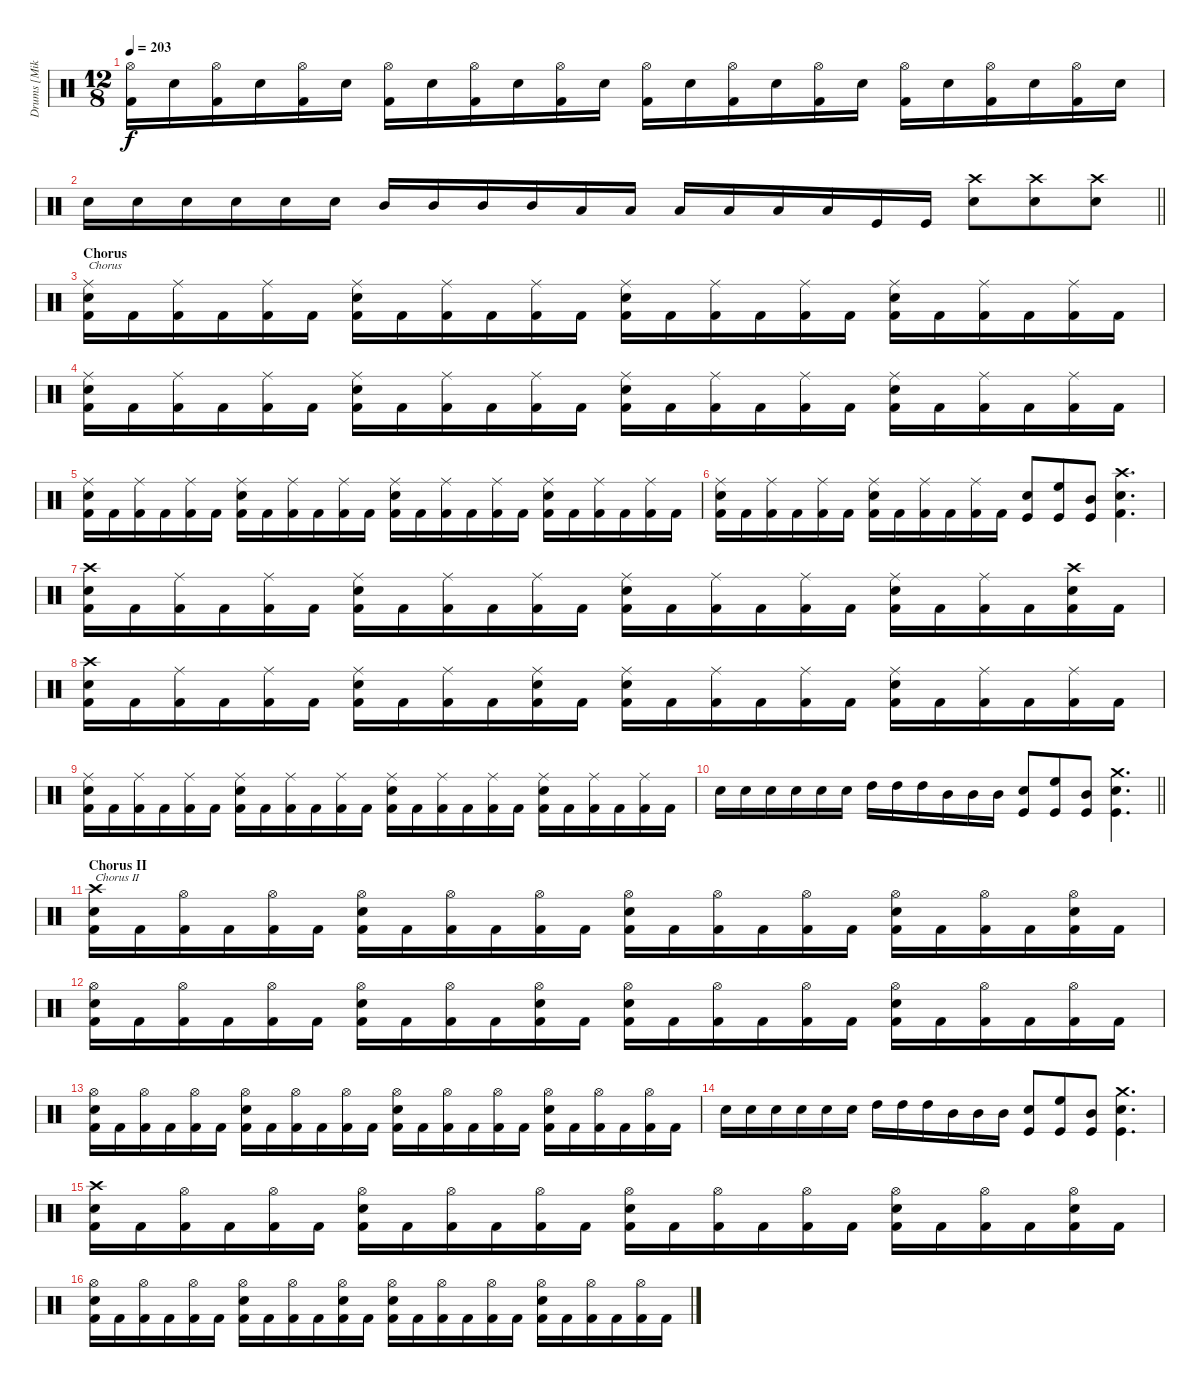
\track ("Drums [Mike Smith]" "Drums [Mik") {instrument percussion}
\staff {score}
\articulation defaults
\ts (12 8)
\tempo 203
\clef neutral
\ks c
("Hi-Hat (open)" "Kick (hit) 2").16{dy f} "Electric Snare (hit)".16 ("Hi-Hat (open)" "Kick (hit) 2").16 "Electric Snare (hit)".16 ("Hi-Hat (open)" "Kick (hit) 2").16 "Electric Snare (hit)".16 ("Hi-Hat (open)" "Kick (hit) 2").16 "Electric Snare (hit)".16 ("Hi-Hat (open)" "Kick (hit) 2").16 "Electric Snare (hit)".16 ("Hi-Hat (open)" "Kick (hit) 2").16 "Electric Snare (hit)".16 ("Hi-Hat (open)" "Kick (hit) 2").16 "Electric Snare (hit)".16 ("Hi-Hat (open)" "Kick (hit) 2").16 "Electric Snare (hit)".16 ("Hi-Hat (open)" "Kick (hit) 2").16 "Electric Snare (hit)".16 ("Hi-Hat (open)" "Kick (hit) 2").16 "Electric Snare (hit)".16 ("Hi-Hat (open)" "Kick (hit) 2").16 "Electric Snare (hit)".16 ("Hi-Hat (open)" "Kick (hit) 2").16 "Electric Snare (hit)".16 |
\barLineRight lightlight "Electric Snare (hit)".16 "Electric Snare (hit)".16 "Electric Snare (hit)".16 "Electric Snare (hit)".16 "Electric Snare (hit)".16 "Electric Snare (hit)".16 "Mid Tom (hit)".16 "Mid Tom (hit)".16 "Mid Tom (hit)".16 "Mid Tom (hit)".16 "Low Tom (hit)".16 "Low Tom (hit)".16 "Low Tom (hit)".16 "Low Tom (hit)".16 "Low Tom (hit)".16 "Low Tom (hit)".16 "Kick (hit)".16 "Kick (hit)".16
("Crash high (hit)" "Electric Snare (hit)").8 ("Crash high (hit)" "Electric Snare (hit)").8 ("Crash high (hit)" "Electric Snare (hit)").8 |
\section ("" "Chorus")
("Ride (middle)" "Electric Snare (hit)" "Kick (hit) 2").16{txt "Chorus"} "Kick (hit) 2".16 ("Ride (middle)" "Kick (hit) 2").16 "Kick (hit) 2".16 ("Ride (middle)" "Kick (hit) 2").16 "Kick (hit) 2".16 ("Ride (middle)" "Electric Snare (hit)" "Kick (hit) 2").16 "Kick (hit) 2".16 ("Ride (middle)" "Kick (hit) 2").16 "Kick (hit) 2".16 ("Ride (middle)" "Kick (hit) 2").16 "Kick (hit) 2".16 ("Ride (middle)" "Electric Snare (hit)" "Kick (hit) 2").16 "Kick (hit) 2".16 ("Ride (middle)" "Kick (hit) 2").16 "Kick (hit) 2".16 ("Ride (middle)" "Kick (hit) 2").16 "Kick (hit) 2".16 ("Ride (middle)" "Electric Snare (hit)" "Kick (hit) 2").16 "Kick (hit) 2".16 ("Ride (middle)" "Kick (hit) 2").16 "Kick (hit) 2".16 ("Ride (middle)" "Kick (hit) 2").16 "Kick (hit) 2".16 |
("Ride (middle)" "Electric Snare (hit)" "Kick (hit) 2").16 "Kick (hit) 2".16 ("Ride (middle)" "Kick (hit) 2").16 "Kick (hit) 2".16 ("Ride (middle)" "Kick (hit) 2").16 "Kick (hit) 2".16 ("Ride (middle)" "Electric Snare (hit)" "Kick (hit) 2").16 "Kick (hit) 2".16 ("Ride (middle)" "Kick (hit) 2").16 "Kick (hit) 2".16 ("Ride (middle)" "Kick (hit) 2").16 "Kick (hit) 2".16 ("Ride (middle)" "Electric Snare (hit)" "Kick (hit) 2").16 "Kick (hit) 2".16 ("Ride (middle)" "Kick (hit) 2").16 "Kick (hit) 2".16 ("Ride (middle)" "Kick (hit) 2").16 "Kick (hit) 2".16 ("Ride (middle)" "Electric Snare (hit)" "Kick (hit) 2").16 "Kick (hit) 2".16 ("Ride (middle)" "Kick (hit) 2").16 "Kick (hit) 2".16 ("Ride (middle)" "Kick (hit) 2").16 "Kick (hit) 2".16 |
("Ride (middle)" "Electric Snare (hit)" "Kick (hit) 2").16 "Kick (hit) 2".16 ("Ride (middle)" "Kick (hit) 2").16 "Kick (hit) 2".16 ("Ride (middle)" "Kick (hit) 2").16 "Kick (hit) 2".16 ("Ride (middle)" "Electric Snare (hit)" "Kick (hit) 2").16 "Kick (hit) 2".16 ("Ride (middle)" "Kick (hit) 2").16 "Kick (hit) 2".16 ("Ride (middle)" "Kick (hit) 2").16 "Kick (hit) 2".16 ("Ride (middle)" "Electric Snare (hit)" "Kick (hit) 2").16 "Kick (hit) 2".16 ("Ride (middle)" "Kick (hit) 2").16 "Kick (hit) 2".16 ("Ride (middle)" "Kick (hit) 2").16 "Kick (hit) 2".16 ("Ride (middle)" "Electric Snare (hit)" "Kick (hit) 2").16 "Kick (hit) 2".16 ("Ride (middle)" "Kick (hit) 2").16 "Kick (hit) 2".16 ("Ride (middle)" "Kick (hit) 2").16 "Kick (hit) 2".16 |
("Ride (middle)" "Electric Snare (hit)" "Kick (hit) 2").16 "Kick (hit) 2".16 ("Ride (middle)" "Kick (hit) 2").16 "Kick (hit) 2".16 ("Ride (middle)" "Kick (hit) 2").16 "Kick (hit) 2".16 ("Ride (middle)" "Electric Snare (hit)" "Kick (hit) 2").16 "Kick (hit) 2".16 ("Ride (middle)" "Kick (hit) 2").16 "Kick (hit) 2".16 ("Ride (middle)" "Kick (hit) 2").16 "Kick (hit) 2".16 ("Electric Snare (hit)" "Kick (hit)").8 ("High Floor Tom (hit)" "Kick (hit)").8 ("Mid Tom (hit)" "Kick (hit)").8 ("Crash high (hit)" "Electric Snare (hit)" "Kick (hit) 2").4{d} |
("Crash high (hit)" "Electric Snare (hit)" "Kick (hit) 2").16 "Kick (hit) 2".16 ("Ride (middle)" "Kick (hit) 2").16 "Kick (hit) 2".16 ("Ride (middle)" "Kick (hit) 2").16 "Kick (hit) 2".16 ("Ride (middle)" "Electric Snare (hit)" "Kick (hit) 2").16 "Kick (hit) 2".16 ("Ride (middle)" "Kick (hit) 2").16 "Kick (hit) 2".16 ("Ride (middle)" "Kick (hit) 2").16 "Kick (hit) 2".16 ("Ride (middle)" "Electric Snare (hit)" "Kick (hit) 2").16 "Kick (hit) 2".16 ("Ride (middle)" "Kick (hit) 2").16 "Kick (hit) 2".16 ("Ride (middle)" "Kick (hit) 2").16 "Kick (hit) 2".16 ("Ride (middle)" "Electric Snare (hit)" "Kick (hit) 2").16 "Kick (hit) 2".16 ("Ride (middle)" "Kick (hit) 2").16 "Kick (hit) 2".16 ("Crash high (hit)" "Electric Snare (hit)" "Kick (hit) 2").16 "Kick (hit) 2".16 |
("Crash high (hit)" "Electric Snare (hit)" "Kick (hit) 2").16 "Kick (hit) 2".16 ("Ride (middle)" "Kick (hit) 2").16 "Kick (hit) 2".16 ("Ride (middle)" "Kick (hit) 2").16 "Kick (hit) 2".16 ("Ride (middle)" "Electric Snare (hit)" "Kick (hit) 2").16 "Kick (hit) 2".16 ("Ride (middle)" "Kick (hit) 2").16 "Kick (hit) 2".16 ("Ride (middle)" "Electric Snare (hit)" "Kick (hit) 2").16 "Kick (hit) 2".16 ("Ride (middle)" "Electric Snare (hit)" "Kick (hit) 2").16 "Kick (hit) 2".16 ("Ride (middle)" "Kick (hit) 2").16 "Kick (hit) 2".16 ("Ride (middle)" "Kick (hit) 2").16 "Kick (hit) 2".16 ("Ride (middle)" "Electric Snare (hit)" "Kick (hit) 2").16 "Kick (hit) 2".16 ("Ride (middle)" "Kick (hit) 2").16 "Kick (hit) 2".16 ("Ride (middle)" "Kick (hit) 2").16 "Kick (hit) 2".16 |
("Ride (middle)" "Electric Snare (hit)" "Kick (hit) 2").16 "Kick (hit) 2".16 ("Ride (middle)" "Kick (hit) 2").16 "Kick (hit) 2".16 ("Ride (middle)" "Kick (hit) 2").16 "Kick (hit) 2".16 ("Ride (middle)" "Electric Snare (hit)" "Kick (hit) 2").16 "Kick (hit) 2".16 ("Ride (middle)" "Kick (hit) 2").16 "Kick (hit) 2".16 ("Ride (middle)" "Kick (hit) 2").16 "Kick (hit) 2".16 ("Ride (middle)" "Electric Snare (hit)" "Kick (hit) 2").16 "Kick (hit) 2".16 ("Ride (middle)" "Kick (hit) 2").16 "Kick (hit) 2".16 ("Ride (middle)" "Kick (hit) 2").16 "Kick (hit) 2".16 ("Ride (middle)" "Electric Snare (hit)" "Kick (hit) 2").16 "Kick (hit) 2".16 ("Ride (middle)" "Kick (hit) 2").16 "Kick (hit) 2".16 ("Ride (middle)" "Kick (hit) 2").16 "Kick (hit) 2".16 |
\barLineRight lightlight "Electric Snare (hit)".16 "Electric Snare (hit)".16 "Electric Snare (hit)".16 "Electric Snare (hit)".16 "Electric Snare (hit)".16 "Electric Snare (hit)".16 "High Tom (hit)".16 "High Tom (hit)".16 "High Tom (hit)".16 "Mid Tom (hit)".16 "Mid Tom (hit)".16 "Mid Tom (hit)".16
("Electric Snare (hit)" "Kick (hit)").8 ("High Floor Tom (hit)" "Kick (hit)").8 ("Mid Tom (hit)" "Kick (hit)").8 ("Crash medium (hit)" "Electric Snare (hit)" "Kick (hit)").4{d} |
\section ("" "Chorus II")
("Crash high (hit)" "Electric Snare (hit)" "Kick (hit) 2").16{txt "Chorus II"} "Kick (hit) 2".16 ("Hi-Hat (open)" "Kick (hit) 2").16 "Kick (hit) 2".16 ("Hi-Hat (open)" "Kick (hit) 2").16 "Kick (hit) 2".16 ("Hi-Hat (open)" "Electric Snare (hit)" "Kick (hit) 2").16 "Kick (hit) 2".16 ("Hi-Hat (open)" "Kick (hit) 2").16 "Kick (hit) 2".16 ("Hi-Hat (open)" "Kick (hit) 2").16 "Kick (hit) 2".16 ("Hi-Hat (open)" "Electric Snare (hit)" "Kick (hit) 2").16 "Kick (hit) 2".16 ("Hi-Hat (open)" "Kick (hit) 2").16 "Kick (hit) 2".16 ("Hi-Hat (open)" "Kick (hit) 2").16 "Kick (hit) 2".16 ("Hi-Hat (open)" "Electric Snare (hit)" "Kick (hit) 2").16 "Kick (hit) 2".16 ("Hi-Hat (open)" "Kick (hit) 2").16 "Kick (hit) 2".16 ("Hi-Hat (open)" "Electric Snare (hit)" "Kick (hit) 2").16 "Kick (hit) 2".16 |
("Hi-Hat (open)" "Electric Snare (hit)" "Kick (hit) 2").16 "Kick (hit) 2".16 ("Hi-Hat (open)" "Kick (hit) 2").16 "Kick (hit) 2".16 ("Hi-Hat (open)" "Kick (hit) 2").16 "Kick (hit) 2".16 ("Hi-Hat (open)" "Electric Snare (hit)" "Kick (hit) 2").16 "Kick (hit) 2".16 ("Hi-Hat (open)" "Kick (hit) 2").16 "Kick (hit) 2".16 ("Hi-Hat (open)" "Electric Snare (hit)" "Kick (hit) 2").16 "Kick (hit) 2".16 ("Hi-Hat (open)" "Electric Snare (hit)" "Kick (hit) 2").16 "Kick (hit) 2".16 ("Hi-Hat (open)" "Kick (hit) 2").16 "Kick (hit) 2".16 ("Hi-Hat (open)" "Kick (hit) 2").16 "Kick (hit) 2".16 ("Hi-Hat (open)" "Electric Snare (hit)" "Kick (hit) 2").16 "Kick (hit) 2".16 ("Hi-Hat (open)" "Kick (hit) 2").16 "Kick (hit) 2".16 ("Hi-Hat (open)" "Kick (hit) 2").16 "Kick (hit) 2".16 |
("Hi-Hat (open)" "Electric Snare (hit)" "Kick (hit) 2").16 "Kick (hit) 2".16 ("Hi-Hat (open)" "Kick (hit) 2").16 "Kick (hit) 2".16 ("Hi-Hat (open)" "Kick (hit) 2").16 "Kick (hit) 2".16 ("Hi-Hat (open)" "Electric Snare (hit)" "Kick (hit) 2").16 "Kick (hit) 2".16 ("Hi-Hat (open)" "Kick (hit) 2").16 "Kick (hit) 2".16 ("Hi-Hat (open)" "Kick (hit) 2").16 "Kick (hit) 2".16 ("Hi-Hat (open)" "Electric Snare (hit)" "Kick (hit) 2").16 "Kick (hit) 2".16 ("Hi-Hat (open)" "Kick (hit) 2").16 "Kick (hit) 2".16 ("Hi-Hat (open)" "Kick (hit) 2").16 "Kick (hit) 2".16 ("Hi-Hat (open)" "Electric Snare (hit)" "Kick (hit) 2").16 "Kick (hit) 2".16 ("Hi-Hat (open)" "Kick (hit) 2").16 "Kick (hit) 2".16 ("Hi-Hat (open)" "Kick (hit) 2").16 "Kick (hit) 2".16 |
"Electric Snare (hit)".16 "Electric Snare (hit)".16 "Electric Snare (hit)".16 "Electric Snare (hit)".16 "Electric Snare (hit)".16 "Electric Snare (hit)".16 "High Tom (hit)".16 "High Tom (hit)".16 "High Tom (hit)".16 "Mid Tom (hit)".16 "Mid Tom (hit)".16 "Mid Tom (hit)".16 ("Electric Snare (hit)" "Kick (hit)").8 ("High Floor Tom (hit)" "Kick (hit)").8 ("Mid Tom (hit)" "Kick (hit)").8 ("Crash medium (hit)" "Electric Snare (hit)" "Kick (hit)").4{d} |
("Crash high (hit)" "Electric Snare (hit)" "Kick (hit) 2").16 "Kick (hit) 2".16 ("Hi-Hat (open)" "Kick (hit) 2").16 "Kick (hit) 2".16 ("Hi-Hat (open)" "Kick (hit) 2").16 "Kick (hit) 2".16 ("Hi-Hat (open)" "Electric Snare (hit)" "Kick (hit) 2").16 "Kick (hit) 2".16 ("Hi-Hat (open)" "Kick (hit) 2").16 "Kick (hit) 2".16 ("Hi-Hat (open)" "Kick (hit) 2").16 "Kick (hit) 2".16 ("Hi-Hat (open)" "Electric Snare (hit)" "Kick (hit) 2").16 "Kick (hit) 2".16 ("Hi-Hat (open)" "Kick (hit) 2").16 "Kick (hit) 2".16 ("Hi-Hat (open)" "Kick (hit) 2").16 "Kick (hit) 2".16 ("Hi-Hat (open)" "Electric Snare (hit)" "Kick (hit) 2").16 "Kick (hit) 2".16 ("Hi-Hat (open)" "Kick (hit) 2").16 "Kick (hit) 2".16 ("Hi-Hat (open)" "Electric Snare (hit)" "Kick (hit) 2").16 "Kick (hit) 2".16 |
("Hi-Hat (open)" "Electric Snare (hit)" "Kick (hit) 2").16 "Kick (hit) 2".16 ("Hi-Hat (open)" "Kick (hit) 2").16 "Kick (hit) 2".16 ("Hi-Hat (open)" "Kick (hit) 2").16 "Kick (hit) 2".16 ("Hi-Hat (open)" "Electric Snare (hit)" "Kick (hit) 2").16 "Kick (hit) 2".16 ("Hi-Hat (open)" "Kick (hit) 2").16 "Kick (hit) 2".16 ("Hi-Hat (open)" "Electric Snare (hit)" "Kick (hit) 2").16 "Kick (hit) 2".16 ("Hi-Hat (open)" "Electric Snare (hit)" "Kick (hit) 2").16 "Kick (hit) 2".16 ("Hi-Hat (open)" "Kick (hit) 2").16 "Kick (hit) 2".16 ("Hi-Hat (open)" "Kick (hit) 2").16 "Kick (hit) 2".16 ("Hi-Hat (open)" "Electric Snare (hit)" "Kick (hit) 2").16 "Kick (hit) 2".16 ("Hi-Hat (open)" "Kick (hit) 2").16 "Kick (hit) 2".16 ("Hi-Hat (open)" "Kick (hit) 2").16 "Kick (hit) 2".16
